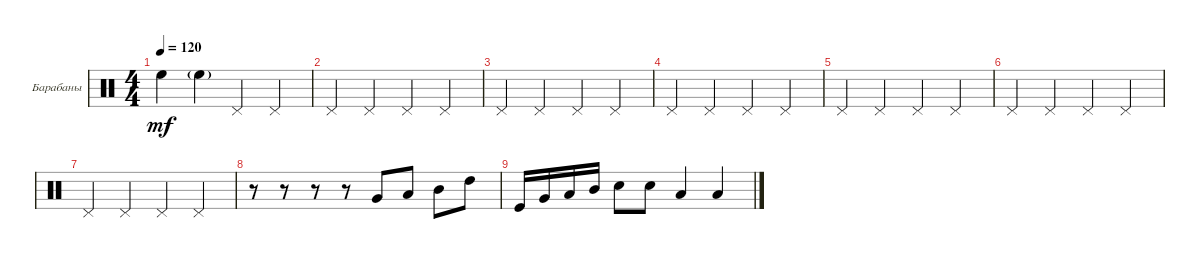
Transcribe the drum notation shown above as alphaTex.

\defaultSystemsLayout 4
\bracketExtendMode groupsimilarinstruments
\firstSystemTrackNameOrientation horizontal
\otherSystemsTrackNameOrientation horizontal
\track ("Ударная установка" "Барабаны") {instrument percussion}
\staff {score}
\articulation defaults
\ts (4 4)
\tempo 120
\clef neutral
\ks c "High Floor Tom (hit)".4{dy mf} "High Floor Tom (hit)"{g}.4 "Pedal Hi-Hat (hit)".4 "Pedal Hi-Hat (hit)".4
|
"Pedal Hi-Hat (hit)".4 "Pedal Hi-Hat (hit)".4 "Pedal Hi-Hat (hit)".4 "Pedal Hi-Hat (hit)".4 |
"Pedal Hi-Hat (hit)".4 "Pedal Hi-Hat (hit)".4 "Pedal Hi-Hat (hit)".4 "Pedal Hi-Hat (hit)".4 |
"Pedal Hi-Hat (hit)".4 "Pedal Hi-Hat (hit)".4 "Pedal Hi-Hat (hit)".4 "Pedal Hi-Hat (hit)".4 |
"Pedal Hi-Hat (hit)".4 "Pedal Hi-Hat (hit)".4 "Pedal Hi-Hat (hit)".4 "Pedal Hi-Hat (hit)".4 |
"Pedal Hi-Hat (hit)".4 "Pedal Hi-Hat (hit)".4 "Pedal Hi-Hat (hit)".4 "Pedal Hi-Hat (hit)".4 |
"Pedal Hi-Hat (hit)".4 "Pedal Hi-Hat (hit)".4 "Pedal Hi-Hat (hit)".4 "Pedal Hi-Hat (hit)".4 |
r.8 r.8 r.8 r.8 "Very Low Tom (hit)".8 "Low Tom (hit)".8 "Mid Tom (hit)".8 "High Tom (hit)".8 |
"Kick (hit)".16 "Very Low Tom (hit)".16 "Low Tom (hit)".16 "Mid Tom (hit)".16 "Snare (hit) 2".8 "Snare (hit) 2".8 "Low Tom (hit)".4 "Low Tom (hit)".4
